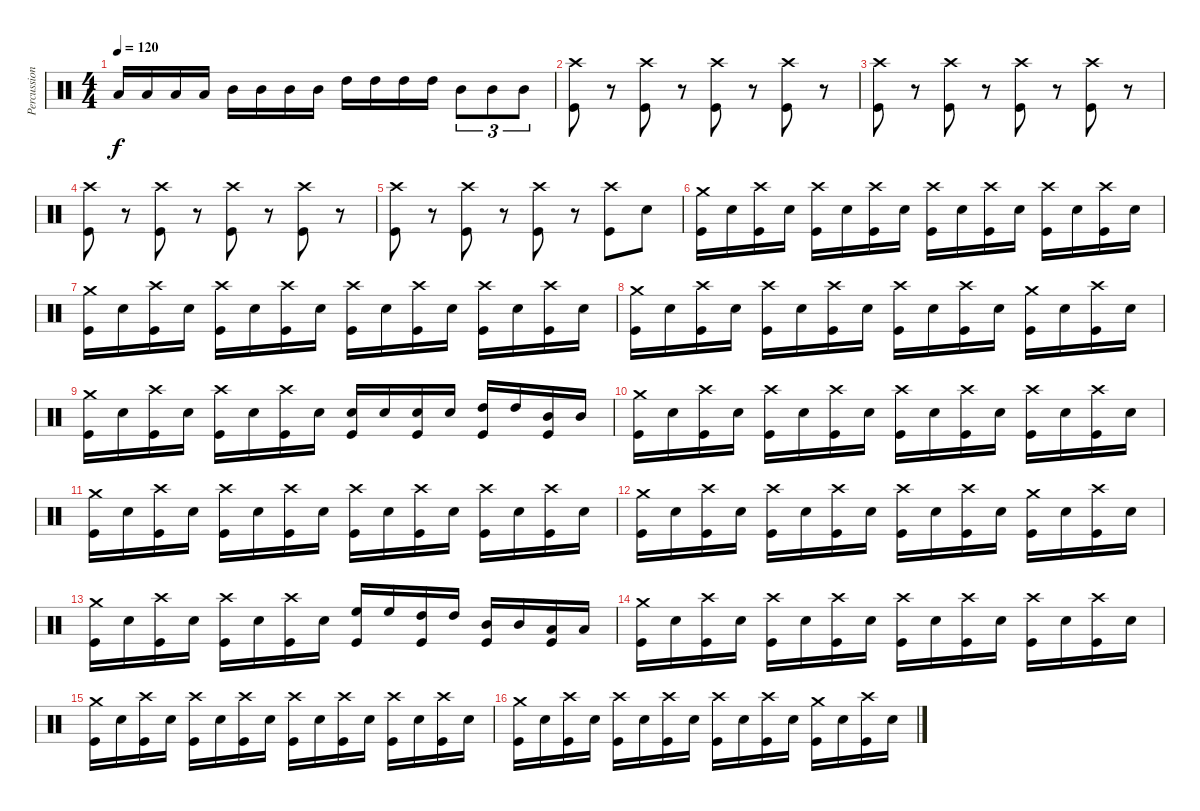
\track ("Percussioni" "Percussion") {instrument percussion}
\staff {score}
\articulation defaults
\ts (4 4)
\tempo 120
\clef neutral
\ks c "Low Tom (hit)".16{dy f} "Low Tom (hit)".16 "Low Tom (hit)".16 "Low Tom (hit)".16 "Mid Tom (hit)".16 "Mid Tom (hit)".16 "Mid Tom (hit)".16 "Mid Tom (hit)".16 "High Tom (hit)".16 "High Tom (hit)".16 "High Tom (hit)".16 "High Tom (hit)".16 "Mid Tom (hit)".8{tu (3 2)} "Mid Tom (hit)".8{tu (3 2)} "Mid Tom (hit)".8{tu (3 2)}
|
("Crash high (hit)" "Kick (hit)").8{volume 16} r.8{volume 0} ("Crash high (hit)" "Kick (hit)").8{volume 16} r.8{volume 0} ("Crash high (hit)" "Kick (hit)").8{volume 16} r.8{volume 0} ("Crash high (hit)" "Kick (hit)").8{volume 16} r.8{volume 0} |
("Crash high (hit)" "Kick (hit)").8{volume 16} r.8{volume 0} ("Crash high (hit)" "Kick (hit)").8{volume 16} r.8{volume 0} ("Crash high (hit)" "Kick (hit)").8{volume 16} r.8{volume 0} ("Crash high (hit)" "Kick (hit)").8{volume 16} r.8{volume 0} |
("Crash high (hit)" "Kick (hit)").8{volume 16} r.8{volume 0} ("Crash high (hit)" "Kick (hit)").8{volume 16} r.8{volume 0} ("Crash high (hit)" "Kick (hit)").8{volume 16} r.8{volume 0} ("Crash high (hit)" "Kick (hit)").8{volume 16} r.8{volume 0} |
("Crash high (hit)" "Kick (hit)").8{volume 16} r.8{volume 0} ("Crash high (hit)" "Kick (hit)").8{volume 16} r.8{volume 0} ("Crash high (hit)" "Kick (hit)").8{volume 16} r.8{volume 0} ("Crash high (hit)" "Kick (hit)").8{volume 16} "Electric Snare (hit)".8{volume 16} |
("Crash medium (hit)" "Kick (hit)").16 "Electric Snare (hit)".16 ("Crash high (hit)" "Kick (hit)").16 "Electric Snare (hit)".16 ("Crash high (hit)" "Kick (hit)").16 "Electric Snare (hit)".16 ("Crash high (hit)" "Kick (hit)").16 "Electric Snare (hit)".16 ("Crash high (hit)" "Kick (hit)").16 "Electric Snare (hit)".16 ("Crash high (hit)" "Kick (hit)").16 "Electric Snare (hit)".16 ("Crash high (hit)" "Kick (hit)").16 "Electric Snare (hit)".16 ("Crash high (hit)" "Kick (hit)").16 "Electric Snare (hit)".16 |
("Crash medium (hit)" "Kick (hit)").16 "Electric Snare (hit)".16 ("Crash high (hit)" "Kick (hit)").16 "Electric Snare (hit)".16 ("Crash high (hit)" "Kick (hit)").16 "Electric Snare (hit)".16 ("Crash high (hit)" "Kick (hit)").16 "Electric Snare (hit)".16 ("Crash high (hit)" "Kick (hit)").16 "Electric Snare (hit)".16 ("Crash high (hit)" "Kick (hit)").16 "Electric Snare (hit)".16 ("Crash high (hit)" "Kick (hit)").16 "Electric Snare (hit)".16 ("Crash high (hit)" "Kick (hit)").16 "Electric Snare (hit)".16 |
("Crash medium (hit)" "Kick (hit)").16 "Electric Snare (hit)".16 ("Crash high (hit)" "Kick (hit)").16 "Electric Snare (hit)".16 ("Crash high (hit)" "Kick (hit)").16 "Electric Snare (hit)".16 ("Crash high (hit)" "Kick (hit)").16 "Electric Snare (hit)".16 ("Crash high (hit)" "Kick (hit)").16 "Electric Snare (hit)".16 ("Crash high (hit)" "Kick (hit)").16 "Electric Snare (hit)".16 ("Crash medium (hit)" "Kick (hit)").16 "Electric Snare (hit)".16 ("Crash high (hit)" "Kick (hit)").16 "Electric Snare (hit)".16 |
("Crash medium (hit)" "Kick (hit)").16 "Electric Snare (hit)".16 ("Crash high (hit)" "Kick (hit)").16 "Electric Snare (hit)".16 ("Crash high (hit)" "Kick (hit)").16 "Electric Snare (hit)".16 ("Crash high (hit)" "Kick (hit)").16 "Electric Snare (hit)".16 ("Electric Snare (hit)" "Kick (hit)").16 "Electric Snare (hit)".16 ("Electric Snare (hit)" "Kick (hit)").16 "Electric Snare (hit)".16 ("High Tom (hit)" "Kick (hit)").16 "High Tom (hit)".16 ("Mid Tom (hit)" "Kick (hit)").16 "Mid Tom (hit)".16 |
("Crash medium (hit)" "Kick (hit)").16 "Electric Snare (hit)".16 ("Crash high (hit)" "Kick (hit)").16 "Electric Snare (hit)".16 ("Crash high (hit)" "Kick (hit)").16 "Electric Snare (hit)".16 ("Crash high (hit)" "Kick (hit)").16 "Electric Snare (hit)".16 ("Crash high (hit)" "Kick (hit)").16 "Electric Snare (hit)".16 ("Crash high (hit)" "Kick (hit)").16 "Electric Snare (hit)".16 ("Crash high (hit)" "Kick (hit)").16 "Electric Snare (hit)".16 ("Crash high (hit)" "Kick (hit)").16 "Electric Snare (hit)".16 |
("Crash medium (hit)" "Kick (hit)").16 "Electric Snare (hit)".16 ("Crash high (hit)" "Kick (hit)").16 "Electric Snare (hit)".16 ("Crash high (hit)" "Kick (hit)").16 "Electric Snare (hit)".16 ("Crash high (hit)" "Kick (hit)").16 "Electric Snare (hit)".16 ("Crash high (hit)" "Kick (hit)").16 "Electric Snare (hit)".16 ("Crash high (hit)" "Kick (hit)").16 "Electric Snare (hit)".16 ("Crash high (hit)" "Kick (hit)").16 "Electric Snare (hit)".16 ("Crash high (hit)" "Kick (hit)").16 "Electric Snare (hit)".16 |
("Crash medium (hit)" "Kick (hit)").16 "Electric Snare (hit)".16 ("Crash high (hit)" "Kick (hit)").16 "Electric Snare (hit)".16 ("Crash high (hit)" "Kick (hit)").16 "Electric Snare (hit)".16 ("Crash high (hit)" "Kick (hit)").16 "Electric Snare (hit)".16 ("Crash high (hit)" "Kick (hit)").16 "Electric Snare (hit)".16 ("Crash high (hit)" "Kick (hit)").16 "Electric Snare (hit)".16 ("Crash medium (hit)" "Kick (hit)").16 "Electric Snare (hit)".16 ("Crash high (hit)" "Kick (hit)").16 "Electric Snare (hit)".16 |
("Crash medium (hit)" "Kick (hit)").16 "Electric Snare (hit)".16 ("Crash high (hit)" "Kick (hit)").16 "Electric Snare (hit)".16 ("Crash high (hit)" "Kick (hit)").16 "Electric Snare (hit)".16 ("Crash high (hit)" "Kick (hit)").16 "Electric Snare (hit)".16 ("High Floor Tom (hit)" "Kick (hit)").16 "High Floor Tom (hit)".16 ("High Tom (hit)" "Kick (hit)").16 "High Tom (hit)".16 ("Mid Tom (hit)" "Kick (hit)").16 "Mid Tom (hit)".16 ("Low Tom (hit)" "Kick (hit)").16 "Low Tom (hit)".16 |
("Crash medium (hit)" "Kick (hit)").16 "Electric Snare (hit)".16 ("Crash high (hit)" "Kick (hit)").16 "Electric Snare (hit)".16 ("Crash high (hit)" "Kick (hit)").16 "Electric Snare (hit)".16 ("Crash high (hit)" "Kick (hit)").16 "Electric Snare (hit)".16 ("Crash high (hit)" "Kick (hit)").16 "Electric Snare (hit)".16 ("Crash high (hit)" "Kick (hit)").16 "Electric Snare (hit)".16 ("Crash high (hit)" "Kick (hit)").16 "Electric Snare (hit)".16 ("Crash high (hit)" "Kick (hit)").16 "Electric Snare (hit)".16 |
("Crash medium (hit)" "Kick (hit)").16 "Electric Snare (hit)".16 ("Crash high (hit)" "Kick (hit)").16 "Electric Snare (hit)".16 ("Crash high (hit)" "Kick (hit)").16 "Electric Snare (hit)".16 ("Crash high (hit)" "Kick (hit)").16 "Electric Snare (hit)".16 ("Crash high (hit)" "Kick (hit)").16 "Electric Snare (hit)".16 ("Crash high (hit)" "Kick (hit)").16 "Electric Snare (hit)".16 ("Crash high (hit)" "Kick (hit)").16 "Electric Snare (hit)".16 ("Crash high (hit)" "Kick (hit)").16 "Electric Snare (hit)".16 |
("Crash medium (hit)" "Kick (hit)").16 "Electric Snare (hit)".16 ("Crash high (hit)" "Kick (hit)").16 "Electric Snare (hit)".16 ("Crash high (hit)" "Kick (hit)").16 "Electric Snare (hit)".16 ("Crash high (hit)" "Kick (hit)").16 "Electric Snare (hit)".16 ("Crash high (hit)" "Kick (hit)").16 "Electric Snare (hit)".16 ("Crash high (hit)" "Kick (hit)").16 "Electric Snare (hit)".16 ("Crash medium (hit)" "Kick (hit)").16 "Electric Snare (hit)".16 ("Crash high (hit)" "Kick (hit)").16 "Electric Snare (hit)".16
